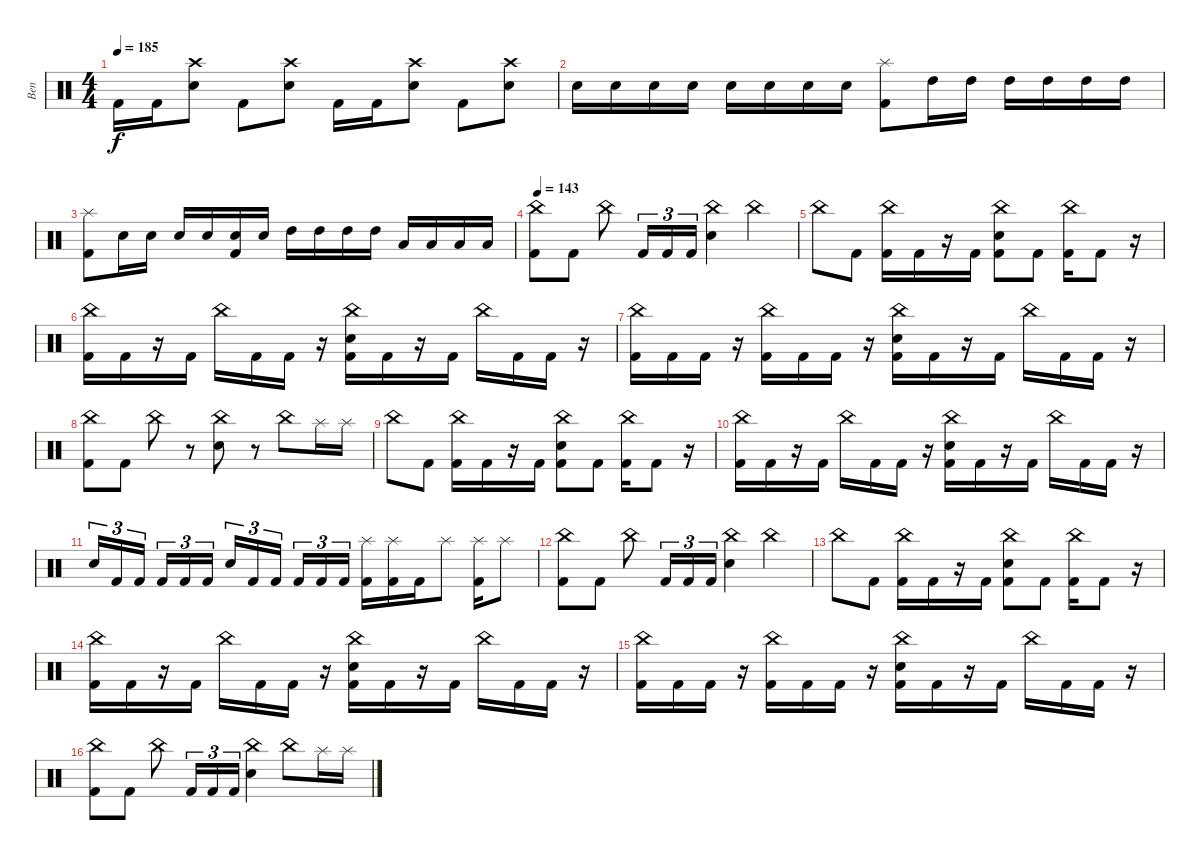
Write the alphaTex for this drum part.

\track ("Ben" "Ben") {instrument percussion}
\staff {score}
\articulation defaults
\ts (4 4)
\tempo 185
\clef neutral
\ks c "Kick (hit) 2".16{dy f} "Kick (hit) 2".16
("Crash high (hit)" "Electric Snare (hit)").8 "Kick (hit) 2".8 ("Crash high (hit)" "Electric Snare (hit)").8 "Kick (hit) 2".16 "Kick (hit) 2".16 ("Crash high (hit)" "Electric Snare (hit)").8 "Kick (hit) 2".8 ("Crash high (hit)" "Electric Snare (hit)").8 |
"Electric Snare (hit)".16 "Electric Snare (hit)".16 "Electric Snare (hit)".16 "Electric Snare (hit)".16 "Electric Snare (hit)".16 "Electric Snare (hit)".16 "Electric Snare (hit)".16 "Electric Snare (hit)".16 ("Splash (hit)" "Kick (hit) 2").8 "High Tom (hit)".16 "High Tom (hit)".16 "High Tom (hit)".16 "High Tom (hit)".16 "High Tom (hit)".16 "High Tom (hit)".16 |
("Splash (hit)" "Kick (hit) 2").8 "Electric Snare (hit)".16 "Electric Snare (hit)".16 "Electric Snare (hit)".16 "Electric Snare (hit)".16 ("Electric Snare (hit)" "Kick (hit) 2").16 "Electric Snare (hit)".16 "High Tom (hit)".16 "High Tom (hit)".16 "High Tom (hit)".16 "High Tom (hit)".16 "Low Tom (hit)".16 "Low Tom (hit)".16 "Low Tom (hit)".16 "Low Tom (hit)".16 |
\tempo 143
("China (hit)" "Kick (hit) 2").8 "Kick (hit) 2".8 "China (hit)".8 "Kick (hit) 2".16{tu (3 2)} "Kick (hit) 2".16{tu (3 2)} "Kick (hit) 2".16{tu (3 2)} ("China (hit)" "Electric Snare (hit)").4 "China (hit)".4 |
"China (hit)".8 "Kick (hit) 2".8 ("China (hit)" "Kick (hit) 2").16 "Kick (hit) 2".16 r.16 "Kick (hit) 2".16 ("China (hit)" "Electric Snare (hit)" "Kick (hit) 2").8 "Kick (hit) 2".8 ("China (hit)" "Kick (hit) 2").16 "Kick (hit) 2".8 r.16 |
("China (hit)" "Kick (hit) 2").16 "Kick (hit) 2".16 r.16 "Kick (hit) 2".16 "China (hit)".16 "Kick (hit) 2".16 "Kick (hit) 2".16 r.16 ("China (hit)" "Electric Snare (hit)" "Kick (hit) 2").16 "Kick (hit) 2".16 r.16 "Kick (hit) 2".16 "China (hit)".16 "Kick (hit) 2".16 "Kick (hit) 2".16 r.16 |
("China (hit)" "Kick (hit) 2").16 "Kick (hit) 2".16 "Kick (hit) 2".16 r.16 ("China (hit)" "Kick (hit) 2").16 "Kick (hit) 2".16 "Kick (hit) 2".16 r.16 ("China (hit)" "Electric Snare (hit)" "Kick (hit) 2").16 "Kick (hit) 2".16 r.16 "Kick (hit) 2".16 "China (hit)".16 "Kick (hit) 2".16 "Kick (hit) 2".16 r.16 |
("China (hit)" "Kick (hit) 2").8 "Kick (hit) 2".8 "China (hit)".8 r.8 ("China (hit)" "Electric Snare (hit)").8 r.8 "China (hit)".8 "Splash (hit)".16 "Splash (hit)".16 |
"China (hit)".8 "Kick (hit) 2".8 ("China (hit)" "Kick (hit) 2").16 "Kick (hit) 2".16 r.16 "Kick (hit) 2".16 ("China (hit)" "Electric Snare (hit)" "Kick (hit) 2").8 "Kick (hit) 2".8 ("China (hit)" "Kick (hit) 2").16 "Kick (hit) 2".8 r.16 |
("China (hit)" "Kick (hit) 2").16 "Kick (hit) 2".16 r.16 "Kick (hit) 2".16 "China (hit)".16 "Kick (hit) 2".16 "Kick (hit) 2".16 r.16 ("China (hit)" "Electric Snare (hit)" "Kick (hit) 2").16 "Kick (hit) 2".16 r.16 "Kick (hit) 2".16 "China (hit)".16 "Kick (hit) 2".16 "Kick (hit) 2".16 r.16 |
"Electric Snare (hit)".16{tu (3 2)} "Kick (hit) 2".16{tu (3 2)} "Kick (hit) 2".16{tu (3 2) beam splitsecondary} "Kick (hit) 2".16{tu (3 2)} "Kick (hit) 2".16{tu (3 2)} "Kick (hit) 2".16{tu (3 2)} "Electric Snare (hit)".16{tu (3 2)} "Kick (hit) 2".16{tu (3 2)} "Kick (hit) 2".16{tu (3 2) beam splitsecondary} "Kick (hit) 2".16{tu (3 2)} "Kick (hit) 2".16{tu (3 2)} "Kick (hit) 2".16{tu (3 2)} ("Splash (hit)" "Kick (hit) 2").16 ("Splash (hit)" "Kick (hit) 2").16 "Kick (hit) 2".16 "Splash (hit)".8 ("Splash (hit)" "Kick (hit) 2").16 "Splash (hit)".8 |
("China (hit)" "Kick (hit) 2").8 "Kick (hit) 2".8 "China (hit)".8 "Kick (hit) 2".16{tu (3 2)} "Kick (hit) 2".16{tu (3 2)} "Kick (hit) 2".16{tu (3 2)} ("China (hit)" "Electric Snare (hit)").4 "China (hit)".4 |
"China (hit)".8 "Kick (hit) 2".8 ("China (hit)" "Kick (hit) 2").16 "Kick (hit) 2".16 r.16 "Kick (hit) 2".16 ("China (hit)" "Electric Snare (hit)" "Kick (hit) 2").8 "Kick (hit) 2".8 ("China (hit)" "Kick (hit) 2").16 "Kick (hit) 2".8 r.16 |
("China (hit)" "Kick (hit) 2").16 "Kick (hit) 2".16 r.16 "Kick (hit) 2".16 "China (hit)".16 "Kick (hit) 2".16 "Kick (hit) 2".16 r.16 ("China (hit)" "Electric Snare (hit)" "Kick (hit) 2").16 "Kick (hit) 2".16 r.16 "Kick (hit) 2".16 "China (hit)".16 "Kick (hit) 2".16 "Kick (hit) 2".16 r.16 |
("China (hit)" "Kick (hit) 2").16 "Kick (hit) 2".16 "Kick (hit) 2".16 r.16 ("China (hit)" "Kick (hit) 2").16 "Kick (hit) 2".16 "Kick (hit) 2".16 r.16 ("China (hit)" "Electric Snare (hit)" "Kick (hit) 2").16 "Kick (hit) 2".16 r.16 "Kick (hit) 2".16 "China (hit)".16 "Kick (hit) 2".16 "Kick (hit) 2".16 r.16 |
("China (hit)" "Kick (hit) 2").8 "Kick (hit) 2".8 "China (hit)".8 "Kick (hit) 2".16{tu (3 2)} "Kick (hit) 2".16{tu (3 2)} "Kick (hit) 2".16{tu (3 2)} ("China (hit)" "Electric Snare (hit)").4 "China (hit)".8 "Splash (hit)".16 "Splash (hit)".16
